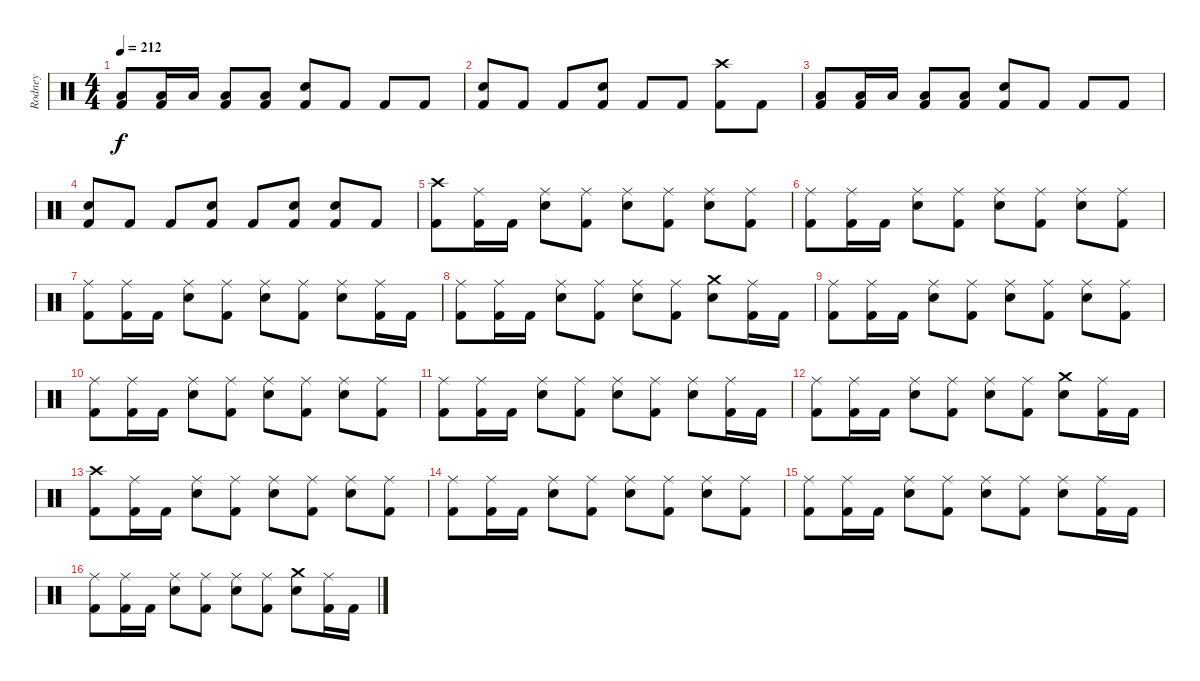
\track ("Rodney" "Rodney") {instrument percussion}
\staff {score}
\articulation defaults
\ts (4 4)
\tempo 212
\clef neutral
\ks c
("Low Tom (hit)" "Kick (hit) 2").8{dy f} ("Low Tom (hit)" "Kick (hit) 2").16 "Low Tom (hit)".16 ("Low Tom (hit)" "Kick (hit) 2").8 ("Low Tom (hit)" "Kick (hit) 2").8 ("Snare (hit) 2" "Kick (hit) 2").8 "Kick (hit) 2".8 "Kick (hit) 2".8 "Kick (hit) 2".8 |
("Snare (hit) 2" "Kick (hit) 2").8 "Kick (hit) 2".8 "Kick (hit) 2".8 ("Snare (hit) 2" "Kick (hit) 2").8 "Kick (hit) 2".8 "Kick (hit) 2".8 ("Crash high (hit)" "Kick (hit) 2").8 "Kick (hit) 2".8 |
("Low Tom (hit)" "Kick (hit) 2").8 ("Low Tom (hit)" "Kick (hit) 2").16 "Low Tom (hit)".16 ("Low Tom (hit)" "Kick (hit) 2").8 ("Low Tom (hit)" "Kick (hit) 2").8 ("Snare (hit) 2" "Kick (hit) 2").8 "Kick (hit) 2".8 "Kick (hit) 2".8 "Kick (hit) 2".8 |
("Snare (hit) 2" "Kick (hit) 2").8 "Kick (hit) 2".8 "Kick (hit) 2".8 ("Snare (hit) 2" "Kick (hit) 2").8 "Kick (hit) 2".8 ("Snare (hit) 2" "Kick (hit) 2").8 ("Snare (hit) 2" "Kick (hit) 2").8 "Kick (hit) 2".8 |
("Crash high (hit)" "Kick (hit) 2").8 ("Ride (middle)" "Kick (hit) 2").16 "Kick (hit) 2".16 ("Ride (middle)" "Snare (hit) 2").8 ("Ride (middle)" "Kick (hit) 2").8 ("Ride (middle)" "Snare (hit) 2").8 ("Ride (middle)" "Kick (hit) 2").8 ("Ride (middle)" "Snare (hit) 2").8 ("Ride (middle)" "Kick (hit) 2").8 |
("Ride (middle)" "Kick (hit) 2").8 ("Ride (middle)" "Kick (hit) 2").16 "Kick (hit) 2".16 ("Ride (middle)" "Snare (hit) 2").8 ("Ride (middle)" "Kick (hit) 2").8 ("Ride (middle)" "Snare (hit) 2").8 ("Ride (middle)" "Kick (hit) 2").8 ("Ride (middle)" "Snare (hit) 2").8 ("Ride (middle)" "Kick (hit) 2").8 |
("Ride (middle)" "Kick (hit) 2").8 ("Ride (middle)" "Kick (hit) 2").16 "Kick (hit) 2".16 ("Ride (middle)" "Snare (hit) 2").8 ("Ride (middle)" "Kick (hit) 2").8 ("Ride (middle)" "Snare (hit) 2").8 ("Ride (middle)" "Kick (hit) 2").8 ("Ride (middle)" "Snare (hit) 2").8 ("Ride (middle)" "Kick (hit) 2").16 "Kick (hit) 2".16 |
("Ride (middle)" "Kick (hit) 2").8 ("Ride (middle)" "Kick (hit) 2").16 "Kick (hit) 2".16 ("Ride (middle)" "Snare (hit) 2").8 ("Ride (middle)" "Kick (hit) 2").8 ("Ride (middle)" "Snare (hit) 2").8 ("Ride (middle)" "Kick (hit) 2").8 ("Crash medium (hit)" "Snare (hit) 2").8 ("Ride (middle)" "Kick (hit) 2").16 "Kick (hit) 2".16 |
("Ride (middle)" "Kick (hit) 2").8 ("Ride (middle)" "Kick (hit) 2").16 "Kick (hit) 2".16 ("Ride (middle)" "Snare (hit) 2").8 ("Ride (middle)" "Kick (hit) 2").8 ("Ride (middle)" "Snare (hit) 2").8 ("Ride (middle)" "Kick (hit) 2").8 ("Ride (middle)" "Snare (hit) 2").8 ("Ride (middle)" "Kick (hit) 2").8 |
("Ride (middle)" "Kick (hit) 2").8 ("Ride (middle)" "Kick (hit) 2").16 "Kick (hit) 2".16 ("Ride (middle)" "Snare (hit) 2").8 ("Ride (middle)" "Kick (hit) 2").8 ("Ride (middle)" "Snare (hit) 2").8 ("Ride (middle)" "Kick (hit) 2").8 ("Ride (middle)" "Snare (hit) 2").8 ("Ride (middle)" "Kick (hit) 2").8 |
("Ride (middle)" "Kick (hit) 2").8 ("Ride (middle)" "Kick (hit) 2").16 "Kick (hit) 2".16 ("Ride (middle)" "Snare (hit) 2").8 ("Ride (middle)" "Kick (hit) 2").8 ("Ride (middle)" "Snare (hit) 2").8 ("Ride (middle)" "Kick (hit) 2").8 ("Ride (middle)" "Snare (hit) 2").8 ("Ride (middle)" "Kick (hit) 2").16 "Kick (hit) 2".16 |
("Ride (middle)" "Kick (hit) 2").8 ("Ride (middle)" "Kick (hit) 2").16 "Kick (hit) 2".16 ("Ride (middle)" "Snare (hit) 2").8 ("Ride (middle)" "Kick (hit) 2").8 ("Ride (middle)" "Snare (hit) 2").8 ("Ride (middle)" "Kick (hit) 2").8 ("Crash medium (hit)" "Snare (hit) 2").8 ("Ride (middle)" "Kick (hit) 2").16 "Kick (hit) 2".16 |
("Crash high (hit)" "Kick (hit) 2").8 ("Ride (middle)" "Kick (hit) 2").16 "Kick (hit) 2".16 ("Ride (middle)" "Snare (hit) 2").8 ("Ride (middle)" "Kick (hit) 2").8 ("Ride (middle)" "Snare (hit) 2").8 ("Ride (middle)" "Kick (hit) 2").8 ("Ride (middle)" "Snare (hit) 2").8 ("Ride (middle)" "Kick (hit) 2").8 |
("Ride (middle)" "Kick (hit) 2").8 ("Ride (middle)" "Kick (hit) 2").16 "Kick (hit) 2".16 ("Ride (middle)" "Snare (hit) 2").8 ("Ride (middle)" "Kick (hit) 2").8 ("Ride (middle)" "Snare (hit) 2").8 ("Ride (middle)" "Kick (hit) 2").8 ("Ride (middle)" "Snare (hit) 2").8 ("Ride (middle)" "Kick (hit) 2").8 |
("Ride (middle)" "Kick (hit) 2").8 ("Ride (middle)" "Kick (hit) 2").16 "Kick (hit) 2".16 ("Ride (middle)" "Snare (hit) 2").8 ("Ride (middle)" "Kick (hit) 2").8 ("Ride (middle)" "Snare (hit) 2").8 ("Ride (middle)" "Kick (hit) 2").8 ("Ride (middle)" "Snare (hit) 2").8 ("Ride (middle)" "Kick (hit) 2").16 "Kick (hit) 2".16 |
("Ride (middle)" "Kick (hit) 2").8 ("Ride (middle)" "Kick (hit) 2").16 "Kick (hit) 2".16 ("Ride (middle)" "Snare (hit) 2").8 ("Ride (middle)" "Kick (hit) 2").8 ("Ride (middle)" "Snare (hit) 2").8 ("Ride (middle)" "Kick (hit) 2").8 ("Crash medium (hit)" "Snare (hit) 2").8 ("Ride (middle)" "Kick (hit) 2").16 "Kick (hit) 2".16
